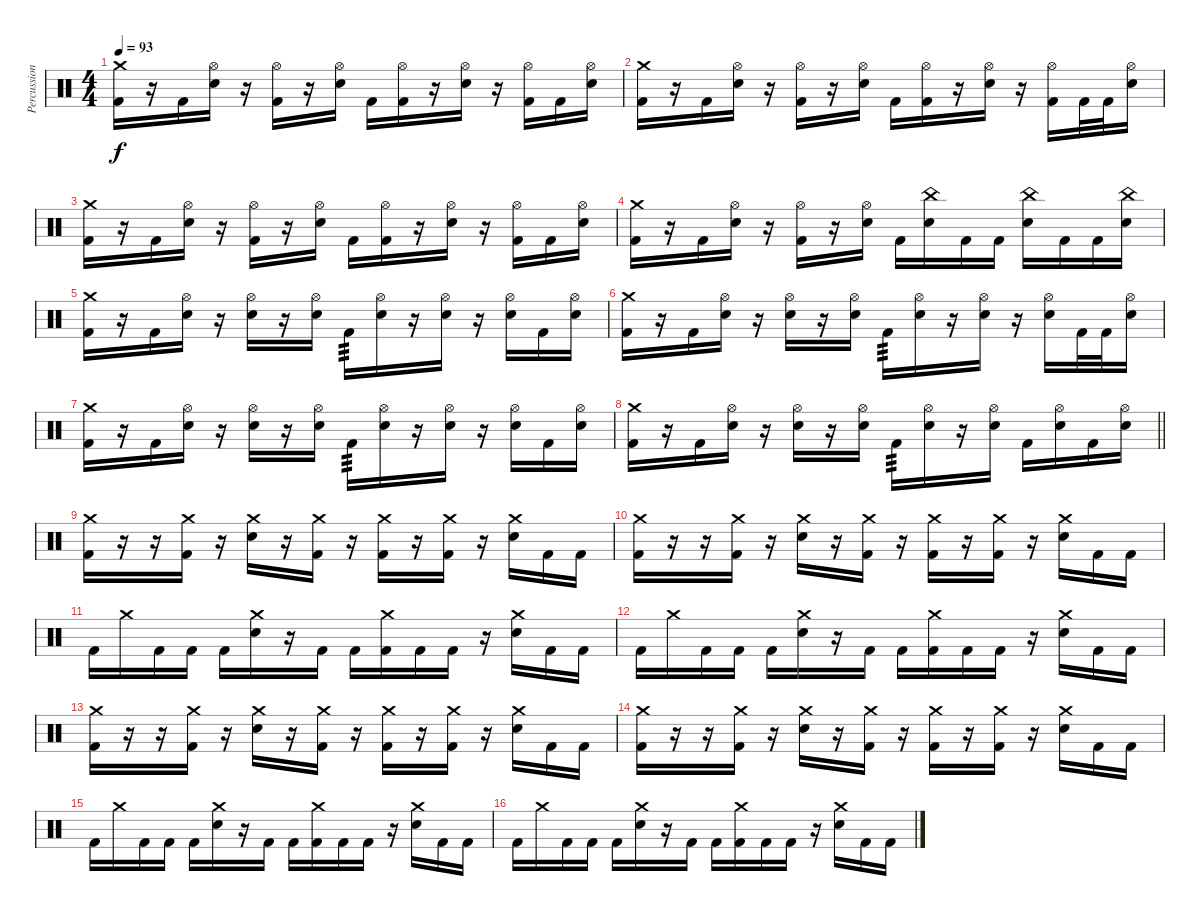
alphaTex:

\track ("Percussion" "Percussion") {instrument percussion}
\staff {score}
\articulation defaults
\ts (4 4)
\tempo 93
\clef neutral
\ks c
("Crash medium (hit)" "Kick (hit) 2").16{dy f} r.16 "Kick (hit) 2".16 ("Hi-Hat (open)" "Electric Snare (hit)").16 r.16 ("Hi-Hat (open)" "Kick (hit) 2").16 r.16 ("Hi-Hat (open)" "Electric Snare (hit)").16 "Kick (hit) 2".16 ("Hi-Hat (open)" "Kick (hit) 2").16 r.16 ("Hi-Hat (open)" "Electric Snare (hit)").16 r.16 ("Hi-Hat (open)" "Kick (hit) 2").16 "Kick (hit) 2".16 ("Hi-Hat (open)" "Electric Snare (hit)").16 |
("Crash medium (hit)" "Kick (hit) 2").16 r.16 "Kick (hit) 2".16 ("Hi-Hat (open)" "Electric Snare (hit)").16 r.16 ("Hi-Hat (open)" "Kick (hit) 2").16 r.16 ("Hi-Hat (open)" "Electric Snare (hit)").16 "Kick (hit) 2".16 ("Hi-Hat (open)" "Kick (hit) 2").16 r.16 ("Hi-Hat (open)" "Electric Snare (hit)").16 r.16 ("Hi-Hat (open)" "Kick (hit) 2").16 "Kick (hit) 2".32 "Kick (hit) 2".32 ("Hi-Hat (open)" "Electric Snare (hit)").16 |
("Crash medium (hit)" "Kick (hit) 2").16 r.16 "Kick (hit) 2".16 ("Hi-Hat (open)" "Electric Snare (hit)").16 r.16 ("Hi-Hat (open)" "Kick (hit) 2").16 r.16 ("Hi-Hat (open)" "Electric Snare (hit)").16 "Kick (hit) 2".16 ("Hi-Hat (open)" "Kick (hit) 2").16 r.16 ("Hi-Hat (open)" "Electric Snare (hit)").16 r.16 ("Hi-Hat (open)" "Kick (hit) 2").16 "Kick (hit) 2".16 ("Hi-Hat (open)" "Electric Snare (hit)").16 |
("Crash medium (hit)" "Kick (hit) 2").16 r.16 "Kick (hit) 2".16 ("Hi-Hat (open)" "Electric Snare (hit)").16 r.16 ("Hi-Hat (open)" "Kick (hit) 2").16 r.16 ("Hi-Hat (open)" "Electric Snare (hit)").16 "Kick (hit) 2".16 ("China (hit)" "Electric Snare (hit)").16 "Kick (hit) 2".16 "Kick (hit) 2".16 ("China (hit)" "Electric Snare (hit)").16 "Kick (hit) 2".16 "Kick (hit) 2".16 ("China (hit)" "Electric Snare (hit)").16 |
("Crash medium (hit)" "Kick (hit) 2").16 r.16 "Kick (hit) 2".16 ("Hi-Hat (open)" "Electric Snare (hit)").16 r.16 ("Hi-Hat (open)" "Electric Snare (hit)").16 r.16 ("Hi-Hat (open)" "Electric Snare (hit)").16 "Kick (hit) 2".16{tp 3} ("Hi-Hat (open)" "Electric Snare (hit)").16 r.16 ("Hi-Hat (open)" "Electric Snare (hit)").16 r.16 ("Hi-Hat (open)" "Electric Snare (hit)").16 "Kick (hit) 2".16 ("Hi-Hat (open)" "Electric Snare (hit)").16 |
("Crash medium (hit)" "Kick (hit) 2").16 r.16 "Kick (hit) 2".16 ("Hi-Hat (open)" "Electric Snare (hit)").16 r.16 ("Hi-Hat (open)" "Electric Snare (hit)").16 r.16 ("Hi-Hat (open)" "Electric Snare (hit)").16 "Kick (hit) 2".16{tp 3} ("Hi-Hat (open)" "Electric Snare (hit)").16 r.16 ("Hi-Hat (open)" "Electric Snare (hit)").16 r.16 ("Hi-Hat (open)" "Electric Snare (hit)").16 "Kick (hit) 2".32 "Kick (hit) 2".32 ("Hi-Hat (open)" "Electric Snare (hit)").16 |
("Crash medium (hit)" "Kick (hit) 2").16 r.16 "Kick (hit) 2".16 ("Hi-Hat (open)" "Electric Snare (hit)").16 r.16 ("Hi-Hat (open)" "Electric Snare (hit)").16 r.16 ("Hi-Hat (open)" "Electric Snare (hit)").16 "Kick (hit) 2".16{tp 3} ("Hi-Hat (open)" "Electric Snare (hit)").16 r.16 ("Hi-Hat (open)" "Electric Snare (hit)").16 r.16 ("Hi-Hat (open)" "Electric Snare (hit)").16 "Kick (hit) 2".16 ("Hi-Hat (open)" "Electric Snare (hit)").16 |
\barLineRight lightlight
("Crash medium (hit)" "Kick (hit) 2").16 r.16 "Kick (hit) 2".16 ("Hi-Hat (open)" "Electric Snare (hit)").16 r.16 ("Hi-Hat (open)" "Electric Snare (hit)").16 r.16 ("Hi-Hat (open)" "Electric Snare (hit)").16 "Kick (hit) 2".16{tp 3} ("Hi-Hat (open)" "Electric Snare (hit)").16 r.16 ("Hi-Hat (open)" "Electric Snare (hit)").16 "Kick (hit) 2".16 ("Hi-Hat (open)" "Electric Snare (hit)").16 "Kick (hit) 2".16 ("Hi-Hat (open)" "Electric Snare (hit)").16 |
("Crash medium (hit)" "Kick (hit) 2").16 r.16 r.16 ("Crash medium (hit)" "Kick (hit) 2").16 r.16 ("Crash medium (hit)" "Electric Snare (hit)").16 r.16 ("Crash medium (hit)" "Kick (hit) 2").16 r.16 ("Crash medium (hit)" "Kick (hit) 2").16 r.16 ("Crash medium (hit)" "Kick (hit) 2").16 r.16 ("Crash medium (hit)" "Electric Snare (hit)").16 "Kick (hit) 2".16 "Kick (hit) 2".16 |
("Crash medium (hit)" "Kick (hit) 2").16 r.16 r.16 ("Crash medium (hit)" "Kick (hit) 2").16 r.16 ("Crash medium (hit)" "Electric Snare (hit)").16 r.16 ("Crash medium (hit)" "Kick (hit) 2").16 r.16 ("Crash medium (hit)" "Kick (hit) 2").16 r.16 ("Crash medium (hit)" "Kick (hit) 2").16 r.16 ("Crash medium (hit)" "Electric Snare (hit)").16 "Kick (hit) 2".16 "Kick (hit) 2".16 |
"Kick (hit) 2".16 "Crash medium (hit)".16 "Kick (hit) 2".16 "Kick (hit) 2".16 "Kick (hit) 2".16 ("Crash medium (hit)" "Electric Snare (hit)").16 r.16 "Kick (hit) 2".16 "Kick (hit) 2".16 ("Crash medium (hit)" "Kick (hit) 2").16 "Kick (hit) 2".16 "Kick (hit) 2".16 r.16 ("Crash medium (hit)" "Electric Snare (hit)").16 "Kick (hit) 2".16 "Kick (hit) 2".16 |
"Kick (hit) 2".16 "Crash medium (hit)".16 "Kick (hit) 2".16 "Kick (hit) 2".16 "Kick (hit) 2".16 ("Crash medium (hit)" "Electric Snare (hit)").16 r.16 "Kick (hit) 2".16 "Kick (hit) 2".16 ("Crash medium (hit)" "Kick (hit) 2").16 "Kick (hit) 2".16 "Kick (hit) 2".16 r.16 ("Crash medium (hit)" "Electric Snare (hit)").16 "Kick (hit) 2".16 "Kick (hit) 2".16 |
("Crash medium (hit)" "Kick (hit) 2").16 r.16 r.16 ("Crash medium (hit)" "Kick (hit) 2").16 r.16 ("Crash medium (hit)" "Electric Snare (hit)").16 r.16 ("Crash medium (hit)" "Kick (hit) 2").16 r.16 ("Crash medium (hit)" "Kick (hit) 2").16 r.16 ("Crash medium (hit)" "Kick (hit) 2").16 r.16 ("Crash medium (hit)" "Electric Snare (hit)").16 "Kick (hit) 2".16 "Kick (hit) 2".16 |
("Crash medium (hit)" "Kick (hit) 2").16 r.16 r.16 ("Crash medium (hit)" "Kick (hit) 2").16 r.16 ("Crash medium (hit)" "Electric Snare (hit)").16 r.16 ("Crash medium (hit)" "Kick (hit) 2").16 r.16 ("Crash medium (hit)" "Kick (hit) 2").16 r.16 ("Crash medium (hit)" "Kick (hit) 2").16 r.16 ("Crash medium (hit)" "Electric Snare (hit)").16 "Kick (hit) 2".16 "Kick (hit) 2".16 |
"Kick (hit) 2".16 "Crash medium (hit)".16 "Kick (hit) 2".16 "Kick (hit) 2".16 "Kick (hit) 2".16 ("Crash medium (hit)" "Electric Snare (hit)").16 r.16 "Kick (hit) 2".16 "Kick (hit) 2".16 ("Crash medium (hit)" "Kick (hit) 2").16 "Kick (hit) 2".16 "Kick (hit) 2".16 r.16 ("Crash medium (hit)" "Electric Snare (hit)").16 "Kick (hit) 2".16 "Kick (hit) 2".16 |
"Kick (hit) 2".16 "Crash medium (hit)".16 "Kick (hit) 2".16 "Kick (hit) 2".16 "Kick (hit) 2".16 ("Crash medium (hit)" "Electric Snare (hit)").16 r.16 "Kick (hit) 2".16 "Kick (hit) 2".16 ("Crash medium (hit)" "Kick (hit) 2").16 "Kick (hit) 2".16 "Kick (hit) 2".16 r.16 ("Crash medium (hit)" "Electric Snare (hit)").16 "Kick (hit) 2".16 "Kick (hit) 2".16
